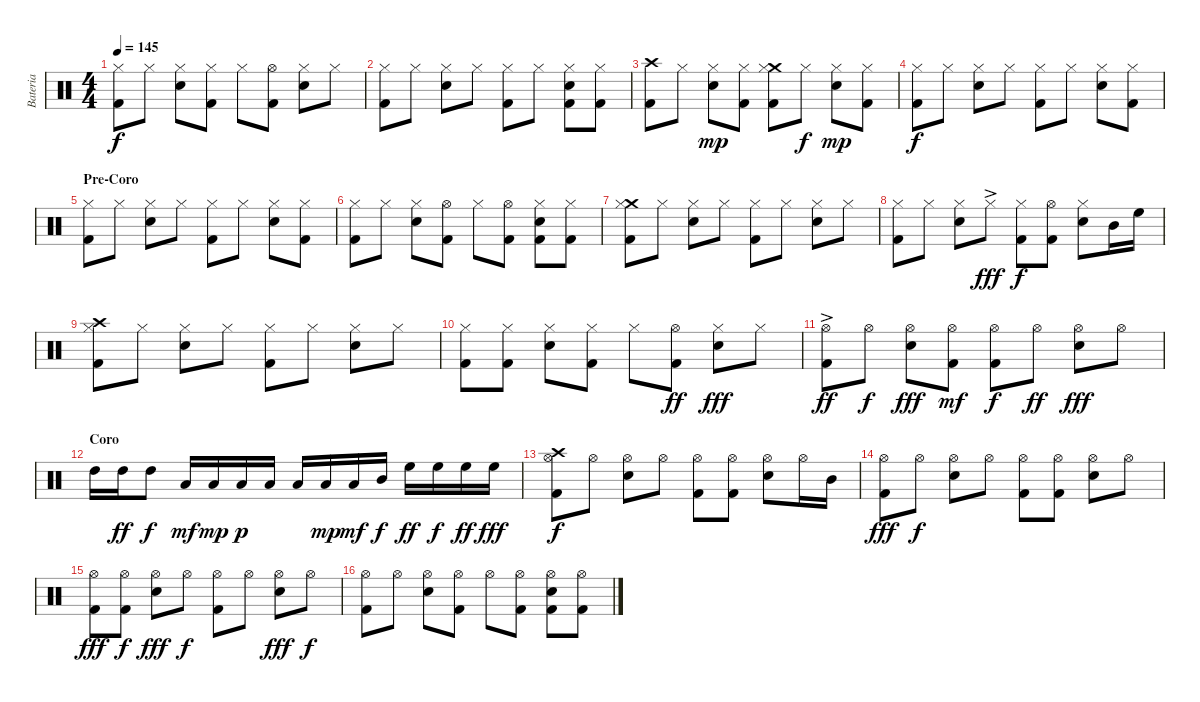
\track ("Bateria" "Bateria") {instrument percussion}
\staff {score}
\articulation defaults
\ts (4 4)
\tempo 145
\clef neutral
\ks c
("Hi-Hat (closed)" "Kick (hit) 2").8{dy f} "Hi-Hat (closed)".8 ("Hi-Hat (closed)" "Electric Snare (hit)").8 ("Hi-Hat (closed)" "Kick (hit) 2").8 "Hi-Hat (closed)".8 ("Hi-Hat (open)" "Kick (hit) 2").8 ("Hi-Hat (closed)" "Electric Snare (hit)").8 "Hi-Hat (closed)".8 |
("Hi-Hat (closed)" "Kick (hit) 2").8 "Hi-Hat (closed)".8 ("Hi-Hat (closed)" "Electric Snare (hit)").8 "Hi-Hat (closed)".8 ("Hi-Hat (closed)" "Kick (hit) 2").8 "Hi-Hat (closed)".8 ("Hi-Hat (closed)" "Electric Snare (hit)" "Kick (hit) 2").8 ("Hi-Hat (closed)" "Kick (hit) 2").8 |
("Crash high (hit)" "Kick (hit) 2").8 "Hi-Hat (closed)".8 ("Hi-Hat (closed)" "Electric Snare (hit)").8{dy mp} ("Hi-Hat (closed)" "Kick (hit) 2").8 ("Crash medium (hit)" "Hi-Hat (closed)" "Kick (hit) 2").8 "Hi-Hat (closed)".8{dy f} ("Hi-Hat (closed)" "Electric Snare (hit)").8{dy mp} ("Hi-Hat (closed)" "Kick (hit) 2").8 |
("Hi-Hat (closed)" "Kick (hit) 2").8{dy f} "Hi-Hat (closed)".8 ("Hi-Hat (closed)" "Electric Snare (hit)").8 "Hi-Hat (closed)".8 ("Hi-Hat (closed)" "Kick (hit) 2").8 "Hi-Hat (closed)".8 ("Hi-Hat (closed)" "Electric Snare (hit)").8 ("Hi-Hat (closed)" "Kick (hit) 2").8 |
\section ("" "Pre-Coro")
("Hi-Hat (closed)" "Kick (hit) 2").8 "Hi-Hat (closed)".8 ("Hi-Hat (closed)" "Electric Snare (hit)").8 "Hi-Hat (closed)".8 ("Hi-Hat (closed)" "Kick (hit) 2").8 "Hi-Hat (closed)".8 ("Hi-Hat (closed)" "Electric Snare (hit)").8 ("Hi-Hat (closed)" "Kick (hit) 2").8 |
("Hi-Hat (closed)" "Kick (hit) 2").8 "Hi-Hat (closed)".8 ("Hi-Hat (closed)" "Electric Snare (hit)").8 ("Hi-Hat (open)" "Kick (hit) 2").8 "Hi-Hat (closed)".8 ("Hi-Hat (open)" "Kick (hit) 2").8 ("Hi-Hat (closed)" "Electric Snare (hit)" "Kick (hit) 2").8 ("Hi-Hat (closed)" "Kick (hit) 2").8 |
("Crash medium (hit)" "Hi-Hat (closed)" "Kick (hit) 2").8 "Hi-Hat (closed)".8 ("Hi-Hat (closed)" "Electric Snare (hit)").8 "Hi-Hat (closed)".8 ("Hi-Hat (closed)" "Kick (hit) 2").8 "Hi-Hat (closed)".8 ("Hi-Hat (closed)" "Electric Snare (hit)").8 "Hi-Hat (closed)".8 |
("Hi-Hat (closed)" "Kick (hit) 2").8 "Hi-Hat (closed)".8 ("Hi-Hat (closed)" "Electric Snare (hit)").8 "Hi-Hat (closed)"{ac}.8{dy fff} ("Hi-Hat (closed)" "Kick (hit) 2").8{dy f} ("Hi-Hat (open)" "Kick (hit) 2").8 ("Hi-Hat (closed)" "Electric Snare (hit)").8 "Mid Tom (hit)".16 "High Floor Tom (hit)".16 |
("Crash high (hit)" "Hi-Hat (closed)" "Kick (hit) 2").8 "Hi-Hat (closed)".8 ("Hi-Hat (closed)" "Electric Snare (hit)").8 "Hi-Hat (closed)".8 ("Hi-Hat (closed)" "Kick (hit) 2").8 "Hi-Hat (closed)".8 ("Hi-Hat (closed)" "Electric Snare (hit)").8 "Hi-Hat (closed)".8 |
("Hi-Hat (closed)" "Kick (hit) 2").8 ("Hi-Hat (closed)" "Kick (hit) 2").8 ("Hi-Hat (closed)" "Electric Snare (hit)").8 ("Hi-Hat (closed)" "Kick (hit) 2").8 "Hi-Hat (closed)".8 ("Hi-Hat (open)" "Kick (hit) 2").8{dy ff} ("Hi-Hat (closed)" "Electric Snare (hit)").8{dy fff} "Hi-Hat (closed)".8 |
("Hi-Hat (open)"{ac} "Kick (hit) 2").8{dy ff} "Hi-Hat (open)".8{dy f} ("Hi-Hat (open)" "Electric Snare (hit)").8{dy fff} ("Hi-Hat (open)" "Kick (hit) 2").8{dy mf} ("Hi-Hat (open)" "Kick (hit) 2").8{dy f} "Hi-Hat (open)".8{dy ff} ("Hi-Hat (open)" "Electric Snare (hit)").8{dy fff} "Hi-Hat (open)".8 |
\section ("" "Coro")
"High Tom (hit)".16 "High Tom (hit)".16{dy ff} "High Tom (hit)".8{dy f} "Low Tom (hit)".16{dy mf} "Low Tom (hit)".16{dy mp} "Low Tom (hit)".16{dy p} "Low Tom (hit)".16 "Low Tom (hit)".16 "Low Tom (hit)".16{dy mp} "Low Tom (hit)".16{dy mf} "Mid Tom (hit)".16{dy f} "High Floor Tom (hit)".16{dy ff} "High Floor Tom (hit)".16{dy f} "High Floor Tom (hit)".16{dy ff} "High Floor Tom (hit)".16{dy fff} |
("Crash high (hit)" "Hi-Hat (open)" "Kick (hit) 2").8{dy f} "Hi-Hat (open)".8 ("Hi-Hat (open)" "Electric Snare (hit)").8 "Hi-Hat (open)".8 ("Hi-Hat (open)" "Kick (hit) 2").8 ("Hi-Hat (open)" "Kick (hit) 2").8 ("Hi-Hat (open)" "Electric Snare (hit)").8 "Hi-Hat (open)".16 "Mid Tom (hit)".16 |
("Hi-Hat (open)" "Kick (hit) 2").8{dy fff} "Hi-Hat (open)".8{dy f} ("Hi-Hat (open)" "Electric Snare (hit)").8 "Hi-Hat (open)".8 ("Hi-Hat (open)" "Kick (hit) 2").8 ("Hi-Hat (open)" "Kick (hit) 2").8 ("Hi-Hat (open)" "Electric Snare (hit)").8 "Hi-Hat (open)".8 |
("Hi-Hat (open)" "Kick (hit) 2").8{dy fff} ("Hi-Hat (open)" "Kick (hit) 2").8{dy f} ("Hi-Hat (open)" "Electric Snare (hit)").8{dy fff} "Hi-Hat (open)".8{dy f} ("Hi-Hat (open)" "Kick (hit) 2").8 "Hi-Hat (open)".8 ("Hi-Hat (open)" "Electric Snare (hit)").8{dy fff} "Hi-Hat (open)".8{dy f} |
("Hi-Hat (open)" "Kick (hit) 2").8 "Hi-Hat (open)".8 ("Hi-Hat (open)" "Electric Snare (hit)").8 ("Hi-Hat (open)" "Kick (hit) 2").8 "Hi-Hat (open)".8 ("Hi-Hat (open)" "Kick (hit) 2").8 ("Hi-Hat (open)" "Electric Snare (hit)" "Kick (hit) 2").8 ("Hi-Hat (open)" "Kick (hit) 2").8
